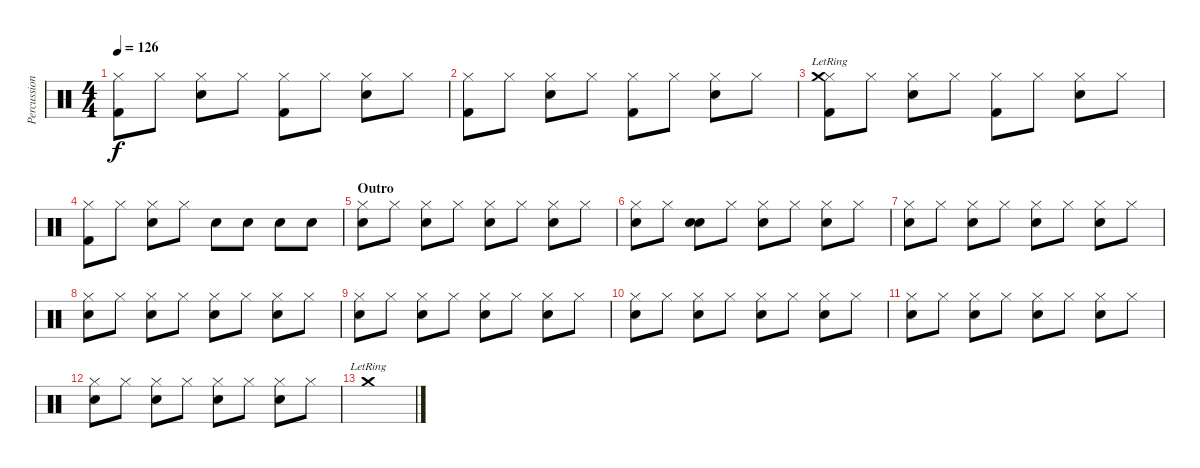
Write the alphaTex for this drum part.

\track ("Percussion" "Percussion") {instrument percussion}
\staff {score}
\articulation defaults
\ts (4 4)
\tempo 126
\clef neutral
\ks c
("Hi-Hat (closed)" "Kick (hit) 2").8{dy f} "Hi-Hat (closed)".8 ("Hi-Hat (closed)" "Snare (hit) 2").8 "Hi-Hat (closed)".8 ("Hi-Hat (closed)" "Kick (hit) 2").8 "Hi-Hat (closed)".8 ("Hi-Hat (closed)" "Snare (hit) 2").8 "Hi-Hat (closed)".8 |
("Hi-Hat (closed)" "Kick (hit) 2").8 "Hi-Hat (closed)".8 ("Hi-Hat (closed)" "Snare (hit) 2").8 "Hi-Hat (closed)".8 ("Hi-Hat (closed)" "Kick (hit) 2").8 "Hi-Hat (closed)".8 ("Hi-Hat (closed)" "Snare (hit) 2").8 "Hi-Hat (closed)".8 |
("Hi-Hat (closed)" "Kick (hit) 2" "Crash medium (hit)"{lr}).8 "Hi-Hat (closed)".8 ("Hi-Hat (closed)" "Snare (hit) 2").8 "Hi-Hat (closed)".8 ("Hi-Hat (closed)" "Kick (hit) 2").8 "Hi-Hat (closed)".8 ("Hi-Hat (closed)" "Snare (hit) 2").8 "Hi-Hat (closed)".8 |
("Hi-Hat (closed)" "Kick (hit) 2").8 "Hi-Hat (closed)".8 ("Hi-Hat (closed)" "Snare (hit) 2").8 "Hi-Hat (closed)".8 "Snare (hit) 2".8 "Snare (hit) 2".8 "Snare (hit) 2".8 "Snare (hit) 2".8 |
\section ("" "Outro")
("Hi-Hat (closed)" "Snare (hit) 2").8 "Hi-Hat (closed)".8 ("Hi-Hat (closed)" "Snare (hit) 2").8 "Hi-Hat (closed)".8 ("Hi-Hat (closed)" "Snare (hit) 2").8 "Hi-Hat (closed)".8 ("Hi-Hat (closed)" "Snare (hit) 2").8 "Hi-Hat (closed)".8 |
("Hi-Hat (closed)" "Snare (hit) 2").8 "Hi-Hat (closed)".8 ("Snare (hit)" "Snare (hit) 2").8 "Hi-Hat (closed)".8 ("Hi-Hat (closed)" "Snare (hit) 2").8 "Hi-Hat (closed)".8 ("Hi-Hat (closed)" "Snare (hit) 2").8 "Hi-Hat (closed)".8 |
("Hi-Hat (closed)" "Snare (hit) 2").8 "Hi-Hat (closed)".8 ("Hi-Hat (closed)" "Snare (hit) 2").8 "Hi-Hat (closed)".8 ("Hi-Hat (closed)" "Snare (hit) 2").8 "Hi-Hat (closed)".8 ("Hi-Hat (closed)" "Snare (hit) 2").8 "Hi-Hat (closed)".8 |
("Hi-Hat (closed)" "Snare (hit) 2").8 "Hi-Hat (closed)".8 ("Hi-Hat (closed)" "Snare (hit) 2").8 "Hi-Hat (closed)".8 ("Hi-Hat (closed)" "Snare (hit) 2").8 "Hi-Hat (closed)".8 ("Hi-Hat (closed)" "Snare (hit) 2").8 "Hi-Hat (closed)".8 |
("Hi-Hat (closed)" "Snare (hit) 2").8 "Hi-Hat (closed)".8 ("Hi-Hat (closed)" "Snare (hit) 2").8 "Hi-Hat (closed)".8 ("Hi-Hat (closed)" "Snare (hit) 2").8 "Hi-Hat (closed)".8 ("Hi-Hat (closed)" "Snare (hit) 2").8 "Hi-Hat (closed)".8 |
("Hi-Hat (closed)" "Snare (hit) 2").8 "Hi-Hat (closed)".8 ("Hi-Hat (closed)" "Snare (hit) 2").8 "Hi-Hat (closed)".8 ("Hi-Hat (closed)" "Snare (hit) 2").8 "Hi-Hat (closed)".8 ("Hi-Hat (closed)" "Snare (hit) 2").8 "Hi-Hat (closed)".8 |
("Hi-Hat (closed)" "Snare (hit) 2").8 "Hi-Hat (closed)".8 ("Hi-Hat (closed)" "Snare (hit) 2").8 "Hi-Hat (closed)".8 ("Hi-Hat (closed)" "Snare (hit) 2").8 "Hi-Hat (closed)".8 ("Hi-Hat (closed)" "Snare (hit) 2").8 "Hi-Hat (closed)".8 |
("Hi-Hat (closed)" "Snare (hit) 2").8 "Hi-Hat (closed)".8 ("Hi-Hat (closed)" "Snare (hit) 2").8 "Hi-Hat (closed)".8 ("Hi-Hat (closed)" "Snare (hit) 2").8 "Hi-Hat (closed)".8 ("Hi-Hat (closed)" "Snare (hit) 2").8 "Hi-Hat (closed)".8 |
"Crash medium (hit)"{lr}.1
